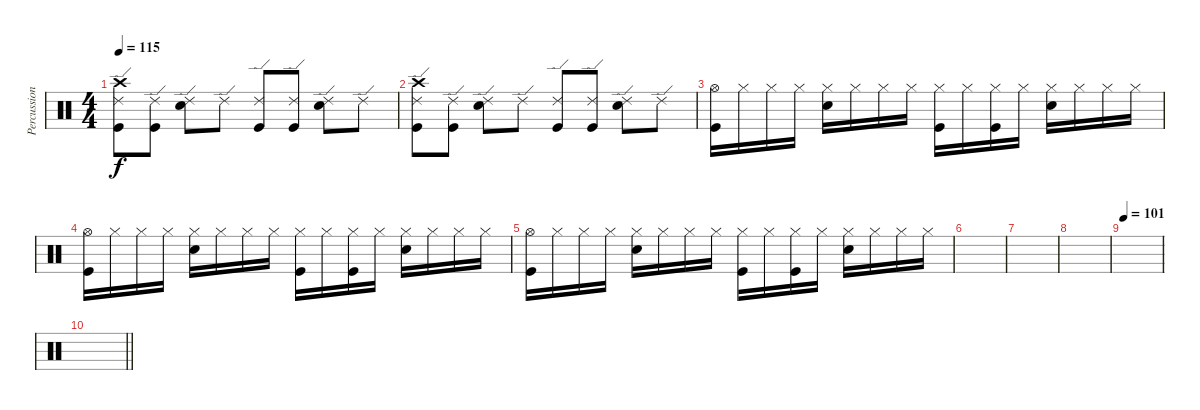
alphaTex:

\track ("Percussions" "Percussion") {instrument percussion}
\staff {score}
\articulation defaults
\ts (4 4)
\tempo 115
\clef neutral
\ks c
("Crash high (hit)" "Ride (edge) 2" "Kick (hit)").8{dy f} ("Ride (edge) 2" "Kick (hit)").8 ("Ride (edge) 2" "Snare (hit) 2").8 "Ride (edge) 2".8 ("Ride (edge) 2" "Kick (hit)").8 ("Ride (edge) 2" "Kick (hit)").8 ("Ride (edge) 2" "Snare (hit) 2").8 "Ride (edge) 2".8 |
("Crash high (hit)" "Ride (edge) 2" "Kick (hit)").8 ("Ride (edge) 2" "Kick (hit)").8 ("Ride (edge) 2" "Snare (hit) 2").8 "Ride (edge) 2".8 ("Ride (edge) 2" "Kick (hit)").8 ("Ride (edge) 2" "Kick (hit)").8 ("Ride (edge) 2" "Snare (hit) 2").8 "Ride (edge) 2".8 |
("Hi-Hat (open)" "Kick (hit)").16 "Hi-Hat (closed)".16 "Hi-Hat (closed)".16 "Hi-Hat (closed)".16 ("Hi-Hat (closed)" "Snare (hit) 2").16 "Hi-Hat (closed)".16 "Hi-Hat (closed)".16 "Hi-Hat (closed)".16 ("Hi-Hat (closed)" "Kick (hit)").16 "Hi-Hat (closed)".16 ("Hi-Hat (closed)" "Kick (hit)").16 "Hi-Hat (closed)".16 ("Hi-Hat (closed)" "Snare (hit) 2").16 "Hi-Hat (closed)".16 "Hi-Hat (closed)".16 "Hi-Hat (closed)".16 |
("Hi-Hat (open)" "Kick (hit)").16 "Hi-Hat (closed)".16 "Hi-Hat (closed)".16 "Hi-Hat (closed)".16 ("Hi-Hat (closed)" "Snare (hit) 2").16 "Hi-Hat (closed)".16 "Hi-Hat (closed)".16 "Hi-Hat (closed)".16 ("Hi-Hat (closed)" "Kick (hit)").16 "Hi-Hat (closed)".16 ("Hi-Hat (closed)" "Kick (hit)").16 "Hi-Hat (closed)".16 ("Hi-Hat (closed)" "Snare (hit) 2").16 "Hi-Hat (closed)".16 "Hi-Hat (closed)".16 "Hi-Hat (closed)".16 |
("Hi-Hat (open)" "Kick (hit)").16 "Hi-Hat (closed)".16 "Hi-Hat (closed)".16 "Hi-Hat (closed)".16 ("Hi-Hat (closed)" "Snare (hit) 2").16 "Hi-Hat (closed)".16 "Hi-Hat (closed)".16 "Hi-Hat (closed)".16 ("Hi-Hat (closed)" "Kick (hit)").16 "Hi-Hat (closed)".16 ("Hi-Hat (closed)" "Kick (hit)").16 "Hi-Hat (closed)".16 ("Hi-Hat (closed)" "Snare (hit) 2").16 "Hi-Hat (closed)".16 "Hi-Hat (closed)".16 "Hi-Hat (closed)".16 |
|
|
|
\tempo 101
|
\barLineRight lightlight
